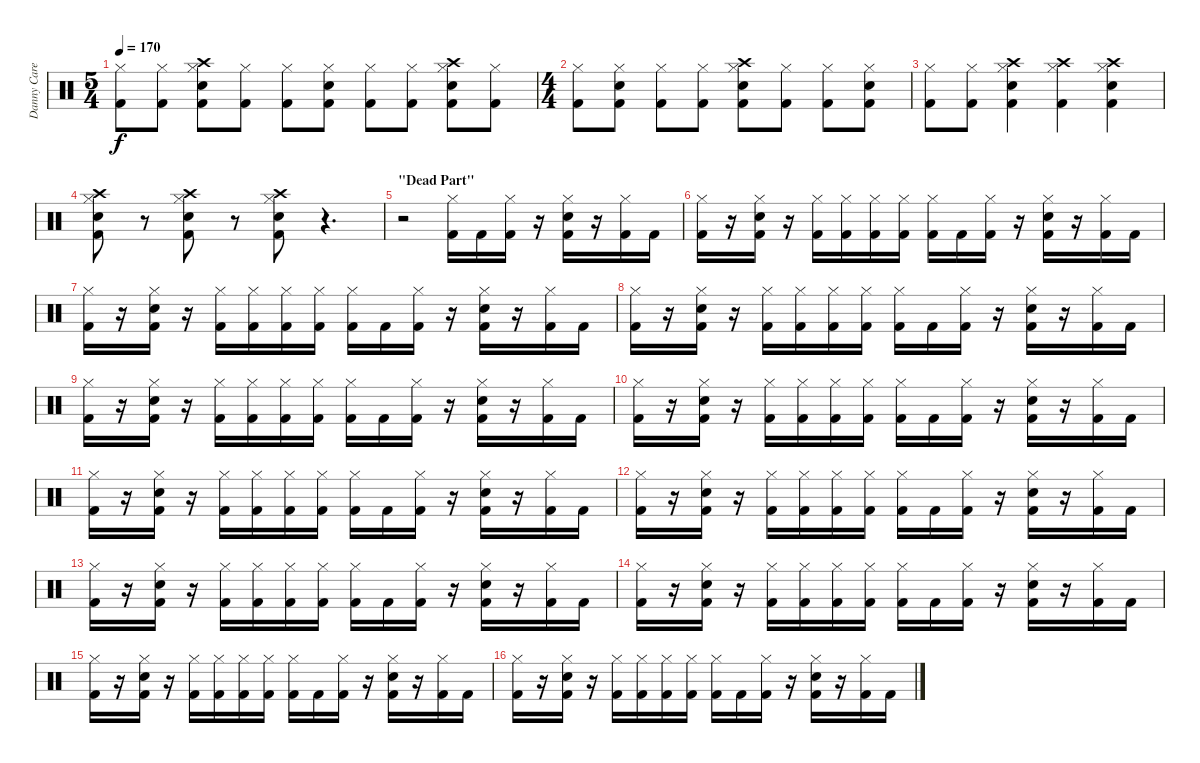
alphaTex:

\track ("Danny Carey" "Danny Care") {instrument percussion}
\staff {score}
\articulation defaults
\ts (5 4)
\tempo 170
\clef neutral
\ks c
("Hi-Hat (closed)" "Kick (hit) 2").8{dy f} ("Hi-Hat (closed)" "Kick (hit) 2").8 ("Crash high (hit)" "Hi-Hat (closed)" "Snare (hit) 2" "Kick (hit) 2").8 ("Hi-Hat (closed)" "Kick (hit) 2").8 ("Hi-Hat (closed)" "Kick (hit) 2").8 ("Hi-Hat (closed)" "Snare (hit) 2" "Kick (hit) 2").8 ("Hi-Hat (closed)" "Kick (hit) 2").8 ("Hi-Hat (closed)" "Kick (hit) 2").8 ("Crash high (hit)" "Hi-Hat (closed)" "Snare (hit) 2" "Kick (hit) 2").8 ("Hi-Hat (closed)" "Kick (hit) 2").8 |
\ts (4 4)
("Hi-Hat (closed)" "Kick (hit) 2").8 ("Hi-Hat (closed)" "Snare (hit) 2" "Kick (hit) 2").8 ("Hi-Hat (closed)" "Kick (hit) 2").8 ("Hi-Hat (closed)" "Kick (hit) 2").8 ("Crash high (hit)" "Hi-Hat (closed)" "Snare (hit) 2" "Kick (hit) 2").8 ("Hi-Hat (closed)" "Kick (hit) 2").8 ("Hi-Hat (closed)" "Kick (hit) 2").8 ("Hi-Hat (closed)" "Snare (hit) 2" "Kick (hit) 2").8 |
("Hi-Hat (closed)" "Kick (hit) 2").8 ("Hi-Hat (closed)" "Kick (hit) 2").8 ("Crash high (hit)" "Hi-Hat (closed)" "Snare (hit) 2" "Kick (hit) 2").4 ("Crash high (hit)" "Hi-Hat (closed)" "Kick (hit) 2").4 ("Crash high (hit)" "Hi-Hat (closed)" "Snare (hit) 2" "Kick (hit) 2").4 |
("Crash high (hit)" "Hi-Hat (closed)" "Snare (hit) 2" "Kick (hit) 2").8 r.8 ("Crash high (hit)" "Hi-Hat (closed)" "Snare (hit) 2" "Kick (hit) 2").8 r.8 ("Crash high (hit)" "Hi-Hat (closed)" "Snare (hit) 2" "Kick (hit) 2").8 r.4{d} |
\section ("" "\"Dead Part\"")
r.2 ("Hi-Hat (closed)" "Kick (hit) 2").16 "Kick (hit) 2".16 ("Hi-Hat (closed)" "Kick (hit) 2").16 r.16 ("Hi-Hat (closed)" "Snare (hit) 2" "Kick (hit) 2").16 r.16 ("Hi-Hat (closed)" "Kick (hit) 2").16 "Kick (hit) 2".16 |
("Hi-Hat (closed)" "Kick (hit) 2").16 r.16 ("Hi-Hat (closed)" "Snare (hit) 2" "Kick (hit) 2").16 r.16 ("Hi-Hat (closed)" "Kick (hit) 2").16 ("Hi-Hat (closed)" "Kick (hit) 2").16 ("Hi-Hat (closed)" "Kick (hit) 2").16 ("Hi-Hat (closed)" "Kick (hit) 2").16 ("Hi-Hat (closed)" "Kick (hit) 2").16 "Kick (hit) 2".16 ("Hi-Hat (closed)" "Kick (hit) 2").16 r.16 ("Hi-Hat (closed)" "Snare (hit) 2" "Kick (hit) 2").16 r.16 ("Hi-Hat (closed)" "Kick (hit) 2").16 "Kick (hit) 2".16 |
("Hi-Hat (closed)" "Kick (hit) 2").16 r.16 ("Hi-Hat (closed)" "Snare (hit) 2" "Kick (hit) 2").16 r.16 ("Hi-Hat (closed)" "Kick (hit) 2").16 ("Hi-Hat (closed)" "Kick (hit) 2").16 ("Hi-Hat (closed)" "Kick (hit) 2").16 ("Hi-Hat (closed)" "Kick (hit) 2").16 ("Hi-Hat (closed)" "Kick (hit) 2").16 "Kick (hit) 2".16 ("Hi-Hat (closed)" "Kick (hit) 2").16 r.16 ("Hi-Hat (closed)" "Snare (hit) 2" "Kick (hit) 2").16 r.16 ("Hi-Hat (closed)" "Kick (hit) 2").16 "Kick (hit) 2".16 |
("Hi-Hat (closed)" "Kick (hit) 2").16 r.16 ("Hi-Hat (closed)" "Snare (hit) 2" "Kick (hit) 2").16 r.16 ("Hi-Hat (closed)" "Kick (hit) 2").16 ("Hi-Hat (closed)" "Kick (hit) 2").16 ("Hi-Hat (closed)" "Kick (hit) 2").16 ("Hi-Hat (closed)" "Kick (hit) 2").16 ("Hi-Hat (closed)" "Kick (hit) 2").16 "Kick (hit) 2".16 ("Hi-Hat (closed)" "Kick (hit) 2").16 r.16 ("Hi-Hat (closed)" "Snare (hit) 2" "Kick (hit) 2").16 r.16 ("Hi-Hat (closed)" "Kick (hit) 2").16 "Kick (hit) 2".16 |
("Hi-Hat (closed)" "Kick (hit) 2").16 r.16 ("Hi-Hat (closed)" "Snare (hit) 2" "Kick (hit) 2").16 r.16 ("Hi-Hat (closed)" "Kick (hit) 2").16 ("Hi-Hat (closed)" "Kick (hit) 2").16 ("Hi-Hat (closed)" "Kick (hit) 2").16 ("Hi-Hat (closed)" "Kick (hit) 2").16 ("Hi-Hat (closed)" "Kick (hit) 2").16 "Kick (hit) 2".16 ("Hi-Hat (closed)" "Kick (hit) 2").16 r.16 ("Hi-Hat (closed)" "Snare (hit) 2" "Kick (hit) 2").16 r.16 ("Hi-Hat (closed)" "Kick (hit) 2").16 "Kick (hit) 2".16 |
("Hi-Hat (closed)" "Kick (hit) 2").16 r.16 ("Hi-Hat (closed)" "Snare (hit) 2" "Kick (hit) 2").16 r.16 ("Hi-Hat (closed)" "Kick (hit) 2").16 ("Hi-Hat (closed)" "Kick (hit) 2").16 ("Hi-Hat (closed)" "Kick (hit) 2").16 ("Hi-Hat (closed)" "Kick (hit) 2").16 ("Hi-Hat (closed)" "Kick (hit) 2").16 "Kick (hit) 2".16 ("Hi-Hat (closed)" "Kick (hit) 2").16 r.16 ("Hi-Hat (closed)" "Snare (hit) 2" "Kick (hit) 2").16 r.16 ("Hi-Hat (closed)" "Kick (hit) 2").16 "Kick (hit) 2".16 |
("Hi-Hat (closed)" "Kick (hit) 2").16 r.16 ("Hi-Hat (closed)" "Snare (hit) 2" "Kick (hit) 2").16 r.16 ("Hi-Hat (closed)" "Kick (hit) 2").16 ("Hi-Hat (closed)" "Kick (hit) 2").16 ("Hi-Hat (closed)" "Kick (hit) 2").16 ("Hi-Hat (closed)" "Kick (hit) 2").16 ("Hi-Hat (closed)" "Kick (hit) 2").16 "Kick (hit) 2".16 ("Hi-Hat (closed)" "Kick (hit) 2").16 r.16 ("Hi-Hat (closed)" "Snare (hit) 2" "Kick (hit) 2").16 r.16 ("Hi-Hat (closed)" "Kick (hit) 2").16 "Kick (hit) 2".16 |
("Hi-Hat (closed)" "Kick (hit) 2").16 r.16 ("Hi-Hat (closed)" "Snare (hit) 2" "Kick (hit) 2").16 r.16 ("Hi-Hat (closed)" "Kick (hit) 2").16 ("Hi-Hat (closed)" "Kick (hit) 2").16 ("Hi-Hat (closed)" "Kick (hit) 2").16 ("Hi-Hat (closed)" "Kick (hit) 2").16 ("Hi-Hat (closed)" "Kick (hit) 2").16 "Kick (hit) 2".16 ("Hi-Hat (closed)" "Kick (hit) 2").16 r.16 ("Hi-Hat (closed)" "Snare (hit) 2" "Kick (hit) 2").16 r.16 ("Hi-Hat (closed)" "Kick (hit) 2").16 "Kick (hit) 2".16 |
("Hi-Hat (closed)" "Kick (hit) 2").16 r.16 ("Hi-Hat (closed)" "Snare (hit) 2" "Kick (hit) 2").16 r.16 ("Hi-Hat (closed)" "Kick (hit) 2").16 ("Hi-Hat (closed)" "Kick (hit) 2").16 ("Hi-Hat (closed)" "Kick (hit) 2").16 ("Hi-Hat (closed)" "Kick (hit) 2").16 ("Hi-Hat (closed)" "Kick (hit) 2").16 "Kick (hit) 2".16 ("Hi-Hat (closed)" "Kick (hit) 2").16 r.16 ("Hi-Hat (closed)" "Snare (hit) 2" "Kick (hit) 2").16 r.16 ("Hi-Hat (closed)" "Kick (hit) 2").16 "Kick (hit) 2".16 |
("Hi-Hat (closed)" "Kick (hit) 2").16 r.16 ("Hi-Hat (closed)" "Snare (hit) 2" "Kick (hit) 2").16 r.16 ("Hi-Hat (closed)" "Kick (hit) 2").16 ("Hi-Hat (closed)" "Kick (hit) 2").16 ("Hi-Hat (closed)" "Kick (hit) 2").16 ("Hi-Hat (closed)" "Kick (hit) 2").16 ("Hi-Hat (closed)" "Kick (hit) 2").16 "Kick (hit) 2".16 ("Hi-Hat (closed)" "Kick (hit) 2").16 r.16 ("Hi-Hat (closed)" "Snare (hit) 2" "Kick (hit) 2").16 r.16 ("Hi-Hat (closed)" "Kick (hit) 2").16 "Kick (hit) 2".16 |
("Hi-Hat (closed)" "Kick (hit) 2").16 r.16 ("Hi-Hat (closed)" "Snare (hit) 2" "Kick (hit) 2").16 r.16 ("Hi-Hat (closed)" "Kick (hit) 2").16 ("Hi-Hat (closed)" "Kick (hit) 2").16 ("Hi-Hat (closed)" "Kick (hit) 2").16 ("Hi-Hat (closed)" "Kick (hit) 2").16 ("Hi-Hat (closed)" "Kick (hit) 2").16 "Kick (hit) 2".16 ("Hi-Hat (closed)" "Kick (hit) 2").16 r.16 ("Hi-Hat (closed)" "Snare (hit) 2" "Kick (hit) 2").16 r.16 ("Hi-Hat (closed)" "Kick (hit) 2").16 "Kick (hit) 2".16 |
("Hi-Hat (closed)" "Kick (hit) 2").16 r.16 ("Hi-Hat (closed)" "Snare (hit) 2" "Kick (hit) 2").16 r.16 ("Hi-Hat (closed)" "Kick (hit) 2").16 ("Hi-Hat (closed)" "Kick (hit) 2").16 ("Hi-Hat (closed)" "Kick (hit) 2").16 ("Hi-Hat (closed)" "Kick (hit) 2").16 ("Hi-Hat (closed)" "Kick (hit) 2").16 "Kick (hit) 2".16 ("Hi-Hat (closed)" "Kick (hit) 2").16 r.16 ("Hi-Hat (closed)" "Snare (hit) 2" "Kick (hit) 2").16 r.16 ("Hi-Hat (closed)" "Kick (hit) 2").16 "Kick (hit) 2".16
